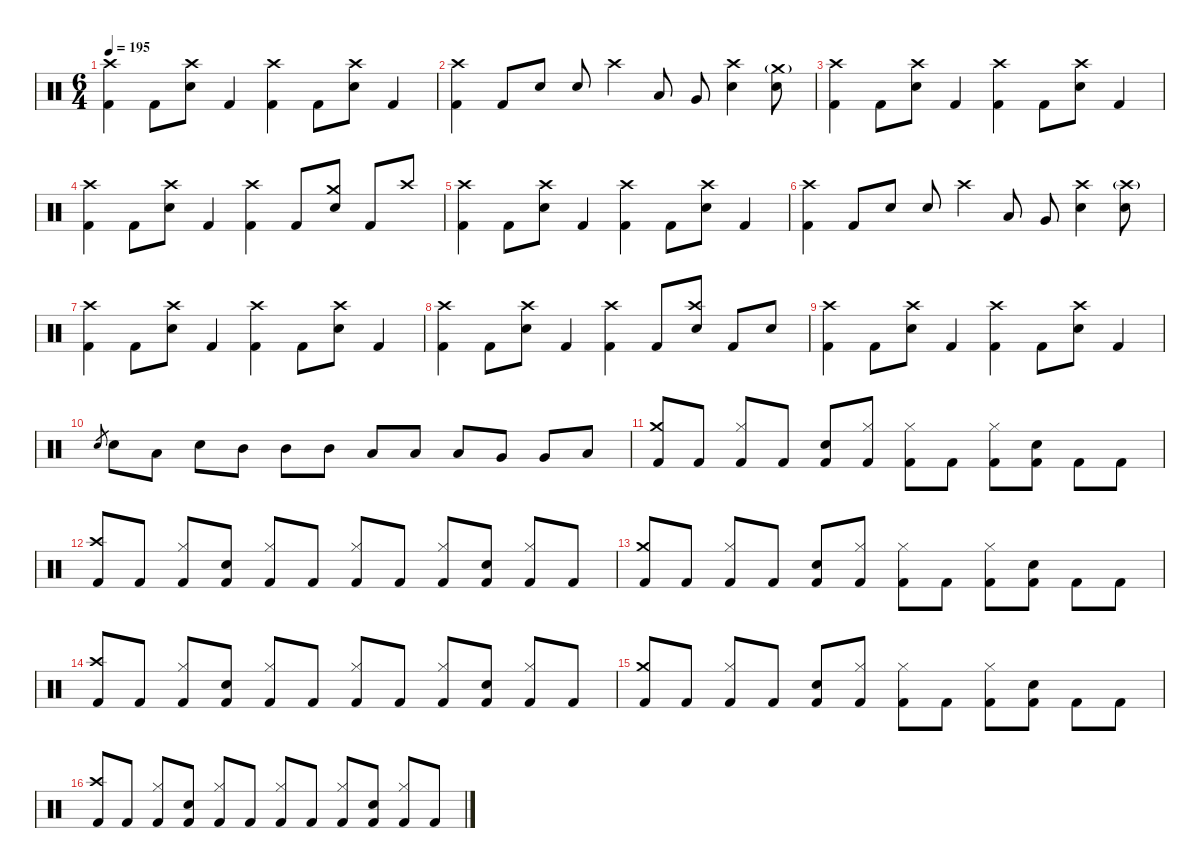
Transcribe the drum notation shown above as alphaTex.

\defaultSystemsLayout 4
\hideDynamics
\bracketExtendMode nobrackets
\singleTrackTrackNamePolicy hidden
\multiTrackTrackNamePolicy hidden
\firstSystemTrackNameMode fullname
\firstSystemTrackNameOrientation horizontal
\otherSystemsTrackNameOrientation horizontal
\track ("Drums" "drm.") {instrument percussion}
\staff {score}
\articulation defaults
\ts (6 4)
\tempo 195
\clef neutral
\ks c
("Crash high (hit)" "Kick (hit) 2").4{dy f beam Down} "Kick (hit) 2".8{beam Down} ("Crash high (hit)" "Snare (hit) 2").8{beam Down} "Kick (hit) 2".4{beam Up} ("Crash high (hit)" "Kick (hit) 2").4{beam Down} "Kick (hit) 2".8{beam Down} ("Crash high (hit)" "Snare (hit) 2").8{beam Down} "Kick (hit) 2".4{beam Up} |
("Crash high (hit)" "Kick (hit) 2").4{beam Down} "Kick (hit) 2".8{beam Up} "Snare (hit) 2".8{beam Up} "Snare (hit) 2".8{beam Up} "Crash high (hit)".4{beam Down} "Low Tom (hit)".8{beam Up} "Very Low Tom (hit)".8{beam Up} ("Crash high (hit)" "Snare (hit) 2").4{beam Down} ("Crash medium (hit)"{g} "Snare (hit) 2").8{beam Down} |
("Crash high (hit)" "Kick (hit) 2").4{beam Down} "Kick (hit) 2".8{beam Down} ("Crash high (hit)" "Snare (hit) 2").8{beam Down} "Kick (hit) 2".4{beam Up} ("Crash high (hit)" "Kick (hit) 2").4{beam Down} "Kick (hit) 2".8{beam Down} ("Crash high (hit)" "Snare (hit) 2").8{beam Down} "Kick (hit) 2".4{beam Up} |
("Crash high (hit)" "Kick (hit) 2").4{beam Down} "Kick (hit) 2".8{beam Down} ("Crash high (hit)" "Snare (hit) 2").8{beam Down} "Kick (hit) 2".4{beam Up} ("Crash high (hit)" "Kick (hit) 2").4{beam Down} "Kick (hit) 2".8{beam Up} ("Crash medium (hit)" "Snare (hit) 2").8{beam Up} "Kick (hit) 2".8{beam Up} "Crash high (hit)".8{beam Up} |
("Crash high (hit)" "Kick (hit) 2").4{beam Down} "Kick (hit) 2".8{beam Down} ("Crash high (hit)" "Snare (hit) 2").8{beam Down} "Kick (hit) 2".4{beam Up} ("Crash high (hit)" "Kick (hit) 2").4{beam Down} "Kick (hit) 2".8{beam Down} ("Crash high (hit)" "Snare (hit) 2").8{beam Down} "Kick (hit) 2".4{beam Up} |
("Crash high (hit)" "Kick (hit) 2").4{beam Down} "Kick (hit) 2".8{beam Up} "Snare (hit) 2".8{beam Up} "Snare (hit) 2".8{beam Up} "Crash high (hit)".4{beam Down} "Low Tom (hit)".8{beam Up} "Very Low Tom (hit)".8{beam Up} ("Crash high (hit)" "Snare (hit) 2").4{beam Down} ("Crash high (hit)"{g} "Snare (hit) 2").8{beam Down} |
("Crash high (hit)" "Kick (hit) 2").4{beam Down} "Kick (hit) 2".8{beam Down} ("Crash high (hit)" "Snare (hit) 2").8{beam Down} "Kick (hit) 2".4{beam Up} ("Crash high (hit)" "Kick (hit) 2").4{beam Down} "Kick (hit) 2".8{beam Down} ("Crash high (hit)" "Snare (hit) 2").8{beam Down} "Kick (hit) 2".4{beam Up} |
("Crash high (hit)" "Kick (hit) 2").4{beam Down} "Kick (hit) 2".8{beam Down} ("Crash high (hit)" "Snare (hit) 2").8{beam Down} "Kick (hit) 2".4{beam Up} ("Crash high (hit)" "Kick (hit) 2").4{beam Down} "Kick (hit) 2".8{beam Up} ("Crash high (hit)" "Snare (hit) 2").8{beam Up} "Kick (hit) 2".8{beam Up} "Snare (hit) 2".8{beam Up} |
("Crash high (hit)" "Kick (hit) 2").4{beam Down} "Kick (hit) 2".8{beam Down} ("Crash high (hit)" "Snare (hit) 2").8{beam Down} "Kick (hit) 2".4{beam Up} ("Crash high (hit)" "Kick (hit) 2").4{beam Down} "Kick (hit) 2".8{beam Down} ("Crash high (hit)" "Snare (hit) 2").8{beam Down} "Kick (hit) 2".4{beam Up} |
"Electric Snare (hit)".8{gr dy mf beam Up} "Snare (hit) 2".8{dy f beam Down} "Low Tom (hit)".8{beam Down} "Snare (hit) 2".8{beam Down} "Mid Tom (hit)".8{beam Down} "Mid Tom (hit)".8{beam Down} "Mid Tom (hit)".8{beam Down} "Low Tom (hit)".8{beam Up} "Low Tom (hit)".8{beam Up} "Low Tom (hit)".8{beam Up} "Very Low Tom (hit)".8{beam Up} "Very Low Tom (hit)".8{beam Up} "Low Floor Tom (hit)".8{beam Up} |
("Crash medium (hit)" "Kick (hit) 2").8{beam Up} "Kick (hit) 2".8{beam Up} ("Hi-Hat (closed)" "Kick (hit) 2").8{beam Up} "Kick (hit) 2".8{beam Up} ("Snare (hit) 2" "Kick (hit) 2").8{beam Up} ("Hi-Hat (closed)" "Kick (hit) 2").8{beam Up} ("Hi-Hat (closed)" "Kick (hit) 2").8{beam Down} "Kick (hit) 2".8{beam Down} ("Hi-Hat (closed)" "Kick (hit) 2").8{beam Down} ("Snare (hit) 2" "Kick (hit) 2").8{beam Down} "Kick (hit) 2".8{beam Down} "Kick (hit) 2".8{beam Down} |
("Crash high (hit)" "Kick (hit) 2").8{beam Up} "Kick (hit) 2".8{beam Up} ("Hi-Hat (closed)" "Kick (hit) 2").8{beam Up} ("Snare (hit) 2" "Kick (hit) 2").8{beam Up} ("Hi-Hat (closed)" "Kick (hit) 2").8{beam Up} "Kick (hit) 2".8{beam Up} ("Hi-Hat (closed)" "Kick (hit) 2").8{beam Up} "Kick (hit) 2".8{beam Up} ("Hi-Hat (closed)" "Kick (hit) 2").8{beam Up} ("Snare (hit) 2" "Kick (hit) 2").8{beam Up} ("Hi-Hat (closed)" "Kick (hit) 2").8{beam Up} "Kick (hit) 2".8{beam Up} |
("Crash medium (hit)" "Kick (hit) 2").8{beam Up} "Kick (hit) 2".8{beam Up} ("Hi-Hat (closed)" "Kick (hit) 2").8{beam Up} "Kick (hit) 2".8{beam Up} ("Snare (hit) 2" "Kick (hit) 2").8{beam Up} ("Hi-Hat (closed)" "Kick (hit) 2").8{beam Up} ("Hi-Hat (closed)" "Kick (hit) 2").8{beam Down} "Kick (hit) 2".8{beam Down} ("Hi-Hat (closed)" "Kick (hit) 2").8{beam Down} ("Snare (hit) 2" "Kick (hit) 2").8{beam Down} "Kick (hit) 2".8{beam Down} "Kick (hit) 2".8{beam Down} |
("Crash high (hit)" "Kick (hit) 2").8{beam Up} "Kick (hit) 2".8{beam Up} ("Hi-Hat (closed)" "Kick (hit) 2").8{beam Up} ("Snare (hit) 2" "Kick (hit) 2").8{beam Up} ("Hi-Hat (closed)" "Kick (hit) 2").8{beam Up} "Kick (hit) 2".8{beam Up} ("Hi-Hat (closed)" "Kick (hit) 2").8{beam Up} "Kick (hit) 2".8{beam Up} ("Hi-Hat (closed)" "Kick (hit) 2").8{beam Up} ("Snare (hit) 2" "Kick (hit) 2").8{beam Up} ("Hi-Hat (closed)" "Kick (hit) 2").8{beam Up} "Kick (hit) 2".8{beam Up} |
("Crash medium (hit)" "Kick (hit) 2").8{beam Up} "Kick (hit) 2".8{beam Up} ("Hi-Hat (closed)" "Kick (hit) 2").8{beam Up} "Kick (hit) 2".8{beam Up} ("Snare (hit) 2" "Kick (hit) 2").8{beam Up} ("Hi-Hat (closed)" "Kick (hit) 2").8{beam Up} ("Hi-Hat (closed)" "Kick (hit) 2").8{beam Down} "Kick (hit) 2".8{beam Down} ("Hi-Hat (closed)" "Kick (hit) 2").8{beam Down} ("Snare (hit) 2" "Kick (hit) 2").8{beam Down} "Kick (hit) 2".8{beam Down} "Kick (hit) 2".8{beam Down} |
("Crash high (hit)" "Kick (hit) 2").8{beam Up} "Kick (hit) 2".8{beam Up} ("Hi-Hat (closed)" "Kick (hit) 2").8{beam Up} ("Snare (hit) 2" "Kick (hit) 2").8{beam Up} ("Hi-Hat (closed)" "Kick (hit) 2").8{beam Up} "Kick (hit) 2".8{beam Up} ("Hi-Hat (closed)" "Kick (hit) 2").8{beam Up} "Kick (hit) 2".8{beam Up} ("Hi-Hat (closed)" "Kick (hit) 2").8{beam Up} ("Snare (hit) 2" "Kick (hit) 2").8{beam Up} ("Hi-Hat (closed)" "Kick (hit) 2").8{beam Up} "Kick (hit) 2".8{beam Up}
